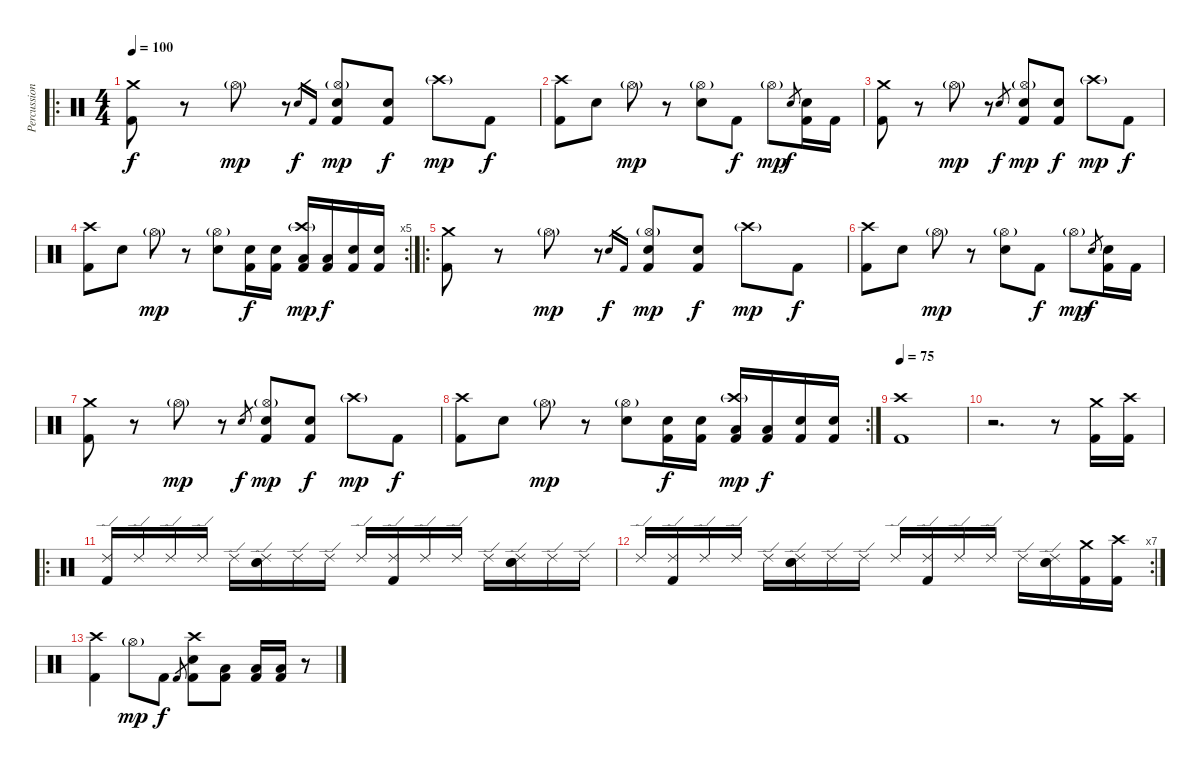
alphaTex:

\track ("Percussion" "Percussion") {instrument percussion}
\staff {score}
\articulation defaults
\ro
\ts (4 4)
\tempo 100
\clef neutral
\ks c
("Crash medium (hit)" "Kick (hit) 2").8{dy f} r.8 "Hi-Hat (open)"{g}.8{dy mp} r.8 "Electric Snare (hit)".16{gr dy f} "Kick (hit) 2".16{gr} ("Hi-Hat (open)"{g} "Electric Snare (hit)" "Kick (hit) 2").8{dy mp} ("Electric Snare (hit)" "Kick (hit) 2").8{dy f} "Crash high (hit)"{g}.8{dy mp} "Kick (hit) 2".8{dy f} |
("Crash high (hit)" "Kick (hit) 2").8 "Electric Snare (hit)".8 "Hi-Hat (open)"{g}.8{dy mp} r.8 ("Hi-Hat (open)"{g} "Electric Snare (hit)").8 "Kick (hit) 2".8{dy f} "Hi-Hat (open)"{g}.8{dy mp} "Electric Snare (hit)".8{gr dy f} ("Electric Snare (hit)" "Kick (hit) 2").16 "Kick (hit) 2".16 |
("Crash medium (hit)" "Kick (hit) 2").8 r.8 "Hi-Hat (open)"{g}.8{dy mp} r.8 "Electric Snare (hit)".8{gr dy f} ("Hi-Hat (open)"{g} "Electric Snare (hit)" "Kick (hit) 2").8{dy mp} ("Electric Snare (hit)" "Kick (hit) 2").8{dy f} "Crash high (hit)"{g}.8{dy mp} "Kick (hit) 2".8{dy f} |
\rc 5
("Crash high (hit)" "Kick (hit) 2").8 "Electric Snare (hit)".8 "Hi-Hat (open)"{g}.8{dy mp} r.8 ("Hi-Hat (open)"{g} "Electric Snare (hit)").8 ("Electric Snare (hit)" "Kick (hit) 2").16{dy f} ("Electric Snare (hit)" "Kick (hit) 2").16 ("Crash high (hit)"{g} "Low Tom (hit)" "Kick (hit) 2").16{dy mp} ("Low Tom (hit)" "Kick (hit) 2").16{dy f} ("Electric Snare (hit)" "Kick (hit) 2").16 ("Electric Snare (hit)" "Kick (hit) 2").16 |
\ro
("Crash medium (hit)" "Kick (hit) 2").8 r.8 "Hi-Hat (open)"{g}.8{dy mp} r.8 "Electric Snare (hit)".16{gr dy f} "Kick (hit) 2".16{gr} ("Hi-Hat (open)"{g} "Electric Snare (hit)" "Kick (hit) 2").8{dy mp} ("Electric Snare (hit)" "Kick (hit) 2").8{dy f} "Crash high (hit)"{g}.8{dy mp} "Kick (hit) 2".8{dy f} |
("Crash high (hit)" "Kick (hit) 2").8 "Electric Snare (hit)".8 "Hi-Hat (open)"{g}.8{dy mp} r.8 ("Hi-Hat (open)"{g} "Electric Snare (hit)").8 "Kick (hit) 2".8{dy f} "Hi-Hat (open)"{g}.8{dy mp} "Electric Snare (hit)".8{gr dy f} ("Electric Snare (hit)" "Kick (hit) 2").16 "Kick (hit) 2".16 |
("Crash medium (hit)" "Kick (hit) 2").8 r.8 "Hi-Hat (open)"{g}.8{dy mp} r.8 "Electric Snare (hit)".8{gr dy f} ("Hi-Hat (open)"{g} "Electric Snare (hit)" "Kick (hit) 2").8{dy mp} ("Electric Snare (hit)" "Kick (hit) 2").8{dy f} "Crash high (hit)"{g}.8{dy mp} "Kick (hit) 2".8{dy f} |
\rc 2
("Crash high (hit)" "Kick (hit) 2").8 "Electric Snare (hit)".8 "Hi-Hat (open)"{g}.8{dy mp} r.8 ("Hi-Hat (open)"{g} "Electric Snare (hit)").8 ("Electric Snare (hit)" "Kick (hit) 2").16{dy f} ("Electric Snare (hit)" "Kick (hit) 2").16 ("Crash high (hit)"{g} "Low Tom (hit)" "Kick (hit) 2").16{dy mp} ("Low Tom (hit)" "Kick (hit) 2").16{dy f} ("Electric Snare (hit)" "Kick (hit) 2").16 ("Electric Snare (hit)" "Kick (hit) 2").16 |
\tempo 75
("Crash high (hit)" "Kick (hit) 2").1 |
r.2{d} r.8 ("Crash medium (hit)" "Kick (hit) 2").16 ("Crash high (hit)" "Kick (hit) 2").16 |
\ro
("Ride (edge) 2" "Kick (hit) 2").16 "Ride (edge) 2".16 "Ride (edge) 2".16 "Ride (edge) 2".16 "Ride (edge) 2".16 ("Ride (edge) 2" "Electric Snare (hit)" "Electric Snare (hit)").16 "Ride (edge) 2".16 "Ride (edge) 2".16 "Ride (edge) 2".16 ("Ride (edge) 2" "Kick (hit) 2").16 "Ride (edge) 2".16 "Ride (edge) 2".16 "Ride (edge) 2".16 ("Ride (edge) 2" "Electric Snare (hit)" "Electric Snare (hit)").16 "Ride (edge) 2".16 "Ride (edge) 2".16 |
\rc 7 "Ride (edge) 2".16
("Ride (edge) 2" "Kick (hit) 2").16 "Ride (edge) 2".16 "Ride (edge) 2".16 "Ride (edge) 2".16 ("Ride (edge) 2" "Electric Snare (hit)" "Electric Snare (hit)").16 "Ride (edge) 2".16 "Ride (edge) 2".16 "Ride (edge) 2".16 ("Ride (edge) 2" "Kick (hit) 2").16 "Ride (edge) 2".16 "Ride (edge) 2".16 "Ride (edge) 2".16 ("Ride (edge) 2" "Electric Snare (hit)" "Electric Snare (hit)").16 ("Crash medium (hit)" "Kick (hit) 2").16 ("Crash high (hit)" "Kick (hit) 2").16 |
("Crash high (hit)" "Kick (hit) 2").4 "Hi-Hat (open)"{g}.8{dy mp} "Kick (hit) 2".8{dy f} "Kick (hit) 2".8{gr} ("Crash high (hit)" "Electric Snare (hit)" "Kick (hit) 2").8 ("Low Tom (hit)" "Kick (hit) 2").8 ("Low Tom (hit)" "Kick (hit) 2").16 ("Low Tom (hit)" "Kick (hit) 2").16 r.8
